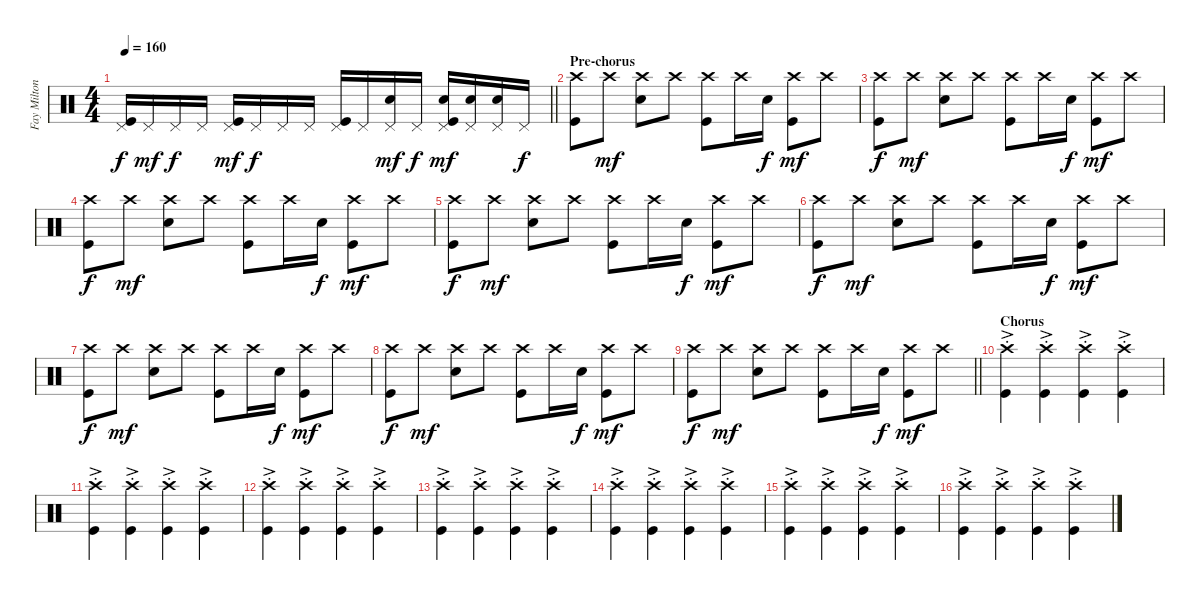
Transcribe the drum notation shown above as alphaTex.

\track ("Fay Milton - Drums" "Fay Milton") {instrument percussion}
\staff {score}
\articulation defaults
\ts (4 4)
\tempo 160
\clef neutral
\barLineRight lightlight
\ks c
("Pedal Hi-Hat (hit)" "Kick (hit)").16{dy f} "Pedal Hi-Hat (hit)".16{dy mf} "Pedal Hi-Hat (hit)".16{dy f} "Pedal Hi-Hat (hit)".16 ("Pedal Hi-Hat (hit)" "Kick (hit)").16{dy mf} "Pedal Hi-Hat (hit)".16{dy f} "Pedal Hi-Hat (hit)".16 "Pedal Hi-Hat (hit)".16 ("Pedal Hi-Hat (hit)" "Kick (hit)").16 "Pedal Hi-Hat (hit)".16 ("Pedal Hi-Hat (hit)" "Snare (hit) 2").16{dy mf} "Pedal Hi-Hat (hit)".16{dy f} ("Pedal Hi-Hat (hit)" "Snare (hit) 2" "Kick (hit)").16{dy mf} ("Pedal Hi-Hat (hit)" "Snare (hit) 2").16 ("Pedal Hi-Hat (hit)" "Snare (hit) 2").16 "Pedal Hi-Hat (hit)".16{dy f} |
\section ("" "Pre-chorus")
("Crash high (hit)" "Kick (hit)").8 "Crash high (hit)".8{dy mf} ("Crash high (hit)" "Snare (hit) 2").8 "Crash high (hit)".8 ("Crash high (hit)" "Kick (hit)").8 "Crash high (hit)".16 "Snare (hit) 2".16{dy f} ("Crash high (hit)" "Kick (hit)").8{dy mf} "Crash high (hit)".8 |
("Crash high (hit)" "Kick (hit)").8{dy f} "Crash high (hit)".8{dy mf} ("Crash high (hit)" "Snare (hit) 2").8 "Crash high (hit)".8 ("Crash high (hit)" "Kick (hit)").8 "Crash high (hit)".16 "Snare (hit) 2".16{dy f} ("Crash high (hit)" "Kick (hit)").8{dy mf} "Crash high (hit)".8 |
("Crash high (hit)" "Kick (hit)").8{dy f} "Crash high (hit)".8{dy mf} ("Crash high (hit)" "Snare (hit) 2").8 "Crash high (hit)".8 ("Crash high (hit)" "Kick (hit)").8 "Crash high (hit)".16 "Snare (hit) 2".16{dy f} ("Crash high (hit)" "Kick (hit)").8{dy mf} "Crash high (hit)".8 |
("Crash high (hit)" "Kick (hit)").8{dy f} "Crash high (hit)".8{dy mf} ("Crash high (hit)" "Snare (hit) 2").8 "Crash high (hit)".8 ("Crash high (hit)" "Kick (hit)").8 "Crash high (hit)".16 "Snare (hit) 2".16{dy f} ("Crash high (hit)" "Kick (hit)").8{dy mf} "Crash high (hit)".8 |
("Crash high (hit)" "Kick (hit)").8{dy f} "Crash high (hit)".8{dy mf} ("Crash high (hit)" "Snare (hit) 2").8 "Crash high (hit)".8 ("Crash high (hit)" "Kick (hit)").8 "Crash high (hit)".16 "Snare (hit) 2".16{dy f} ("Crash high (hit)" "Kick (hit)").8{dy mf} "Crash high (hit)".8 |
("Crash high (hit)" "Kick (hit)").8{dy f} "Crash high (hit)".8{dy mf} ("Crash high (hit)" "Snare (hit) 2").8 "Crash high (hit)".8 ("Crash high (hit)" "Kick (hit)").8 "Crash high (hit)".16 "Snare (hit) 2".16{dy f} ("Crash high (hit)" "Kick (hit)").8{dy mf} "Crash high (hit)".8 |
("Crash high (hit)" "Kick (hit)").8{dy f} "Crash high (hit)".8{dy mf} ("Crash high (hit)" "Snare (hit) 2").8 "Crash high (hit)".8 ("Crash high (hit)" "Kick (hit)").8 "Crash high (hit)".16 "Snare (hit) 2".16{dy f} ("Crash high (hit)" "Kick (hit)").8{dy mf} "Crash high (hit)".8 |
\barLineRight lightlight
("Crash high (hit)" "Kick (hit)").8{dy f} "Crash high (hit)".8{dy mf} ("Crash high (hit)" "Snare (hit) 2").8 "Crash high (hit)".8 ("Crash high (hit)" "Kick (hit)").8 "Crash high (hit)".16 "Snare (hit) 2".16{dy f} ("Crash high (hit)" "Kick (hit)").8{dy mf} "Crash high (hit)".8 |
\section ("" "Chorus")
("Crash high (hit)"{ac st} "Kick (hit)"{st}).4 ("Crash high (hit)"{ac st} "Kick (hit)"{st}).4 ("Crash high (hit)"{ac st} "Kick (hit)"{st}).4 ("Crash high (hit)"{ac st} "Kick (hit)"{st}).4 |
("Crash high (hit)"{ac st} "Kick (hit)"{st}).4 ("Crash high (hit)"{ac st} "Kick (hit)"{st}).4 ("Crash high (hit)"{ac st} "Kick (hit)"{st}).4 ("Crash high (hit)"{ac st} "Kick (hit)"{st}).4 |
("Crash high (hit)"{ac st} "Kick (hit)"{st}).4 ("Crash high (hit)"{ac st} "Kick (hit)"{st}).4 ("Crash high (hit)"{ac st} "Kick (hit)"{st}).4 ("Crash high (hit)"{ac st} "Kick (hit)"{st}).4 |
("Crash high (hit)"{ac st} "Kick (hit)"{st}).4 ("Crash high (hit)"{ac st} "Kick (hit)"{st}).4 ("Crash high (hit)"{ac st} "Kick (hit)"{st}).4 ("Crash high (hit)"{ac st} "Kick (hit)"{st}).4 |
("Crash high (hit)"{ac st} "Kick (hit)"{st}).4 ("Crash high (hit)"{ac st} "Kick (hit)"{st}).4 ("Crash high (hit)"{ac st} "Kick (hit)"{st}).4 ("Crash high (hit)"{ac st} "Kick (hit)"{st}).4 |
("Crash high (hit)"{ac st} "Kick (hit)"{st}).4 ("Crash high (hit)"{ac st} "Kick (hit)"{st}).4 ("Crash high (hit)"{ac st} "Kick (hit)"{st}).4 ("Crash high (hit)"{ac st} "Kick (hit)"{st}).4 |
("Crash high (hit)"{ac st} "Kick (hit)"{st}).4 ("Crash high (hit)"{ac st} "Kick (hit)"{st}).4 ("Crash high (hit)"{ac st} "Kick (hit)"{st}).4 ("Crash high (hit)"{ac st} "Kick (hit)"{st}).4
